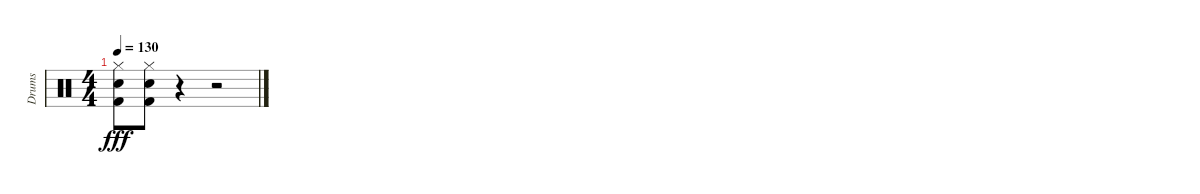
\track ("Drums" "Drums") {instrument percussion}
\staff {score}
\articulation defaults
\ts (4 4)
\tempo 130
\clef neutral
\ks c
("Kick (hit) 2" "Snare (hit) 2" "Hi-Hat (closed)").8{dy fff} ("Kick (hit) 2" "Snare (hit) 2" "Hi-Hat (closed)").8 r.4 r.2
